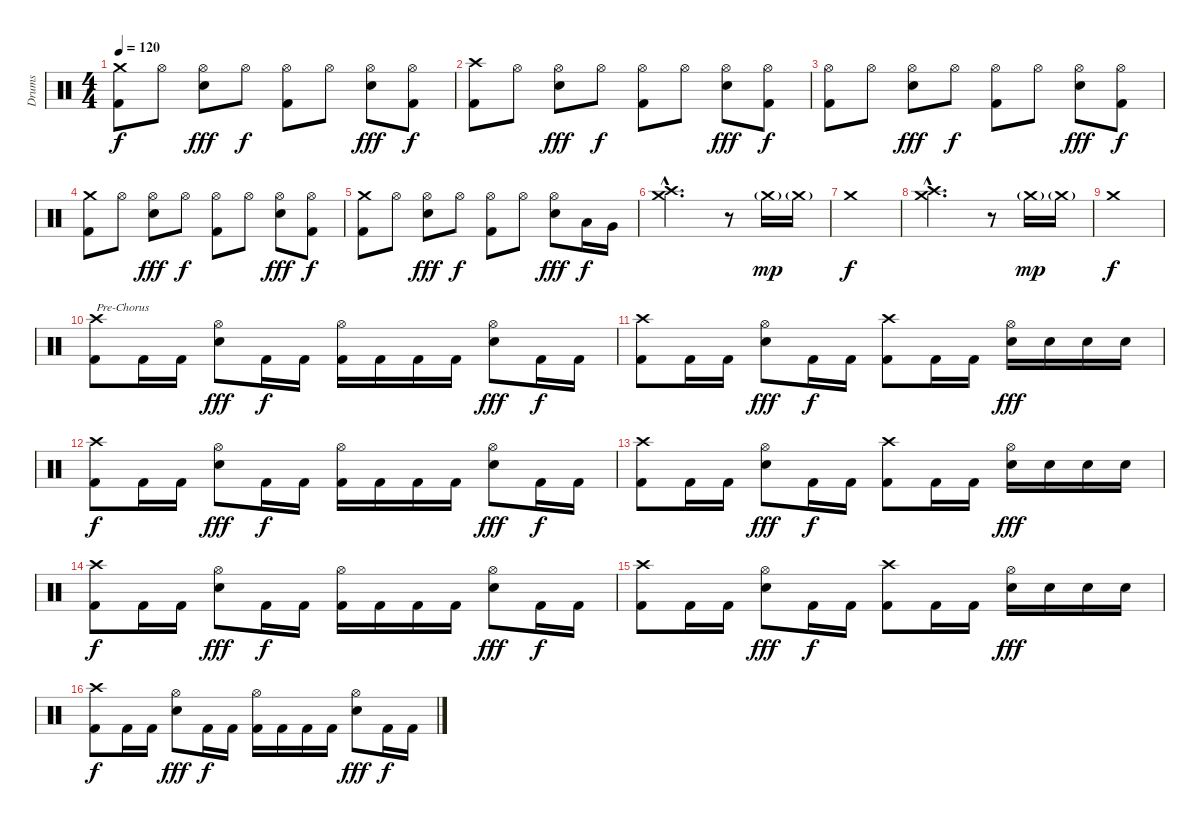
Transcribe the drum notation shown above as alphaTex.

\track ("Drums" "Drums") {instrument percussion}
\staff {score}
\articulation defaults
\ts (4 4)
\tempo 120
\clef neutral
\ks c
("Crash medium (hit)" "Kick (hit) 2").8{dy f} "Hi-Hat (open)".8 ("Hi-Hat (open)" "Snare (hit) 2").8{dy fff} "Hi-Hat (open)".8{dy f} ("Hi-Hat (open)" "Kick (hit) 2").8 "Hi-Hat (open)".8 ("Hi-Hat (open)" "Snare (hit) 2").8{dy fff} ("Hi-Hat (open)" "Kick (hit) 2").8{dy f} |
("Crash high (hit)" "Kick (hit) 2").8 "Hi-Hat (open)".8 ("Hi-Hat (open)" "Snare (hit) 2").8{dy fff} "Hi-Hat (open)".8{dy f} ("Hi-Hat (open)" "Kick (hit) 2").8 "Hi-Hat (open)".8 ("Hi-Hat (open)" "Snare (hit) 2").8{dy fff} ("Hi-Hat (open)" "Kick (hit) 2").8{dy f} |
("Hi-Hat (open)" "Kick (hit) 2").8 "Hi-Hat (open)".8 ("Hi-Hat (open)" "Snare (hit) 2").8{dy fff} "Hi-Hat (open)".8{dy f} ("Hi-Hat (open)" "Kick (hit) 2").8 "Hi-Hat (open)".8 ("Hi-Hat (open)" "Snare (hit) 2").8{dy fff} ("Hi-Hat (open)" "Kick (hit) 2").8{dy f} |
("Crash medium (hit)" "Kick (hit) 2").8 "Hi-Hat (open)".8 ("Hi-Hat (open)" "Snare (hit) 2").8{dy fff} "Hi-Hat (open)".8{dy f} ("Hi-Hat (open)" "Kick (hit) 2").8 "Hi-Hat (open)".8 ("Hi-Hat (open)" "Snare (hit) 2").8{dy fff} ("Hi-Hat (open)" "Kick (hit) 2").8{dy f} |
("Crash medium (hit)" "Kick (hit) 2").8 "Hi-Hat (open)".8 ("Hi-Hat (open)" "Snare (hit) 2").8{dy fff} "Hi-Hat (open)".8{dy f} ("Hi-Hat (open)" "Kick (hit) 2").8 "Hi-Hat (open)".8 ("Hi-Hat (open)" "Snare (hit) 2").8{dy fff} "Low Tom (hit)".16{dy f} "Very Low Tom (hit)".16 |
("Crash high (hit)"{hac} "Crash medium (hit)"{hac}).2{d} r.8 "Crash medium (hit)"{g}.16{dy mp} "Crash medium (hit)"{g}.16 |
"Crash medium (hit)".1{dy f} |
("Crash high (hit)"{hac} "Crash medium (hit)"{hac}).2{d} r.8 "Crash medium (hit)"{g}.16{dy mp} "Crash medium (hit)"{g}.16 |
"Crash medium (hit)".1{dy f} |
("Crash high (hit)" "Kick (hit) 2").8{txt "Pre-Chorus"} "Kick (hit) 2".16 "Kick (hit) 2".16 ("Hi-Hat (open)" "Snare (hit) 2").8{dy fff} "Kick (hit) 2".16{dy f} "Kick (hit) 2".16 ("Hi-Hat (open)" "Kick (hit) 2").16 "Kick (hit) 2".16 "Kick (hit) 2".16 "Kick (hit) 2".16 ("Hi-Hat (open)" "Snare (hit) 2").8{dy fff} "Kick (hit) 2".16{dy f} "Kick (hit) 2".16 |
("Crash high (hit)" "Kick (hit) 2").8 "Kick (hit) 2".16 "Kick (hit) 2".16 ("Hi-Hat (open)" "Snare (hit) 2").8{dy fff} "Kick (hit) 2".16{dy f} "Kick (hit) 2".16 ("Crash high (hit)" "Kick (hit) 2").8 "Kick (hit) 2".16 "Kick (hit) 2".16 ("Hi-Hat (open)" "Snare (hit) 2").16{dy fff} "Snare (hit) 2".16 "Snare (hit) 2".16 "Snare (hit) 2".16 |
("Crash high (hit)" "Kick (hit) 2").8{dy f} "Kick (hit) 2".16 "Kick (hit) 2".16 ("Hi-Hat (open)" "Snare (hit) 2").8{dy fff} "Kick (hit) 2".16{dy f} "Kick (hit) 2".16 ("Hi-Hat (open)" "Kick (hit) 2").16 "Kick (hit) 2".16 "Kick (hit) 2".16 "Kick (hit) 2".16 ("Hi-Hat (open)" "Snare (hit) 2").8{dy fff} "Kick (hit) 2".16{dy f} "Kick (hit) 2".16 |
("Crash high (hit)" "Kick (hit) 2").8 "Kick (hit) 2".16 "Kick (hit) 2".16 ("Hi-Hat (open)" "Snare (hit) 2").8{dy fff} "Kick (hit) 2".16{dy f} "Kick (hit) 2".16 ("Crash high (hit)" "Kick (hit) 2").8 "Kick (hit) 2".16 "Kick (hit) 2".16 ("Hi-Hat (open)" "Snare (hit) 2").16{dy fff} "Snare (hit) 2".16 "Snare (hit) 2".16 "Snare (hit) 2".16 |
("Crash high (hit)" "Kick (hit) 2").8{dy f} "Kick (hit) 2".16 "Kick (hit) 2".16 ("Hi-Hat (open)" "Snare (hit) 2").8{dy fff} "Kick (hit) 2".16{dy f} "Kick (hit) 2".16 ("Hi-Hat (open)" "Kick (hit) 2").16 "Kick (hit) 2".16 "Kick (hit) 2".16 "Kick (hit) 2".16 ("Hi-Hat (open)" "Snare (hit) 2").8{dy fff} "Kick (hit) 2".16{dy f} "Kick (hit) 2".16 |
("Crash high (hit)" "Kick (hit) 2").8 "Kick (hit) 2".16 "Kick (hit) 2".16 ("Hi-Hat (open)" "Snare (hit) 2").8{dy fff} "Kick (hit) 2".16{dy f} "Kick (hit) 2".16 ("Crash high (hit)" "Kick (hit) 2").8 "Kick (hit) 2".16 "Kick (hit) 2".16 ("Hi-Hat (open)" "Snare (hit) 2").16{dy fff} "Snare (hit) 2".16 "Snare (hit) 2".16 "Snare (hit) 2".16 |
("Crash high (hit)" "Kick (hit) 2").8{dy f} "Kick (hit) 2".16 "Kick (hit) 2".16 ("Hi-Hat (open)" "Snare (hit) 2").8{dy fff} "Kick (hit) 2".16{dy f} "Kick (hit) 2".16 ("Hi-Hat (open)" "Kick (hit) 2").16 "Kick (hit) 2".16 "Kick (hit) 2".16 "Kick (hit) 2".16 ("Hi-Hat (open)" "Snare (hit) 2").8{dy fff} "Kick (hit) 2".16{dy f} "Kick (hit) 2".16
